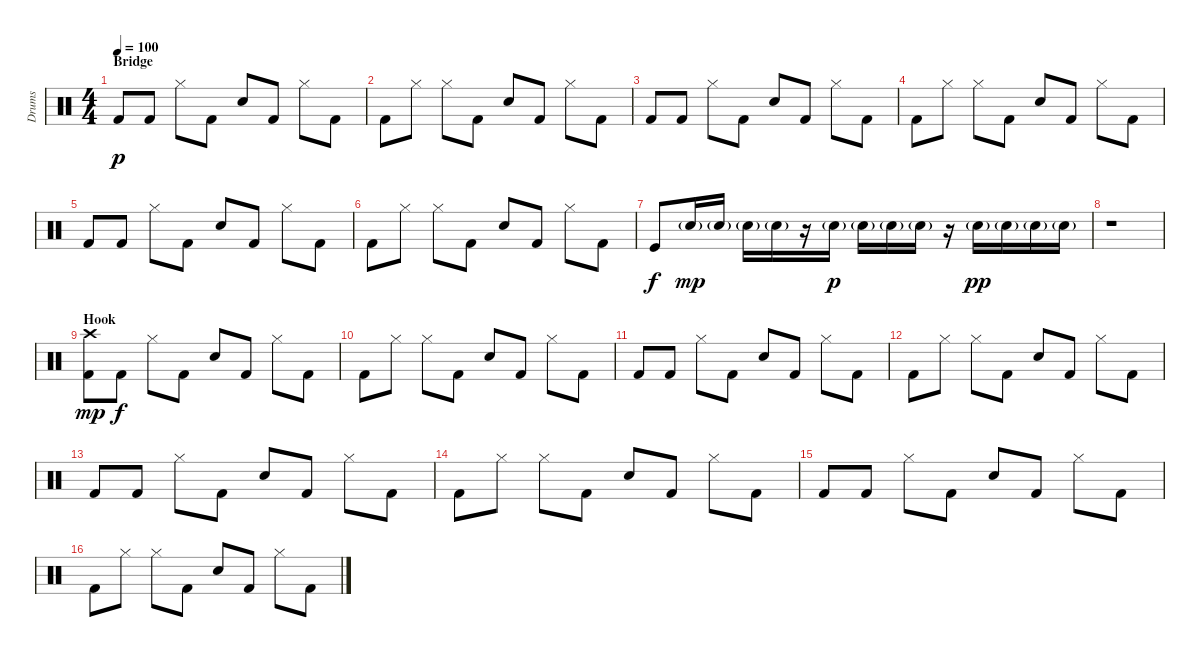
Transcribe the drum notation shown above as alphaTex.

\track ("Drums" "Drums") {instrument percussion}
\staff {score}
\articulation defaults
\ts (4 4)
\section ("" "Bridge")
\tempo 100
\clef neutral
\ks c "Kick (hit) 2".8{dy p} "Kick (hit) 2".8 "Hi-Hat (closed)".8 "Kick (hit) 2".8 "Snare (hit) 2".8 "Kick (hit) 2".8 "Hi-Hat (closed)".8 "Kick (hit) 2".8
|
"Kick (hit) 2".8 "Hi-Hat (closed)".8 "Hi-Hat (closed)".8 "Kick (hit) 2".8 "Snare (hit) 2".8 "Kick (hit) 2".8 "Hi-Hat (closed)".8 "Kick (hit) 2".8 |
"Kick (hit) 2".8 "Kick (hit) 2".8 "Hi-Hat (closed)".8 "Kick (hit) 2".8 "Snare (hit) 2".8 "Kick (hit) 2".8 "Hi-Hat (closed)".8 "Kick (hit) 2".8 |
"Kick (hit) 2".8 "Hi-Hat (closed)".8 "Hi-Hat (closed)".8 "Kick (hit) 2".8 "Snare (hit) 2".8 "Kick (hit) 2".8 "Hi-Hat (closed)".8 "Kick (hit) 2".8 |
"Kick (hit) 2".8 "Kick (hit) 2".8 "Hi-Hat (closed)".8 "Kick (hit) 2".8 "Snare (hit) 2".8 "Kick (hit) 2".8 "Hi-Hat (closed)".8 "Kick (hit) 2".8 |
"Kick (hit) 2".8 "Hi-Hat (closed)".8 "Hi-Hat (closed)".8 "Kick (hit) 2".8 "Snare (hit) 2".8 "Kick (hit) 2".8 "Hi-Hat (closed)".8 "Kick (hit) 2".8 |
"Kick (hit)".8{dy f} "Snare (hit) 2"{g}.16{dy mp} "Snare (hit) 2"{g}.16 "Snare (hit) 2"{g}.16 "Snare (hit) 2"{g}.16 r.16 "Snare (hit) 2"{g}.16{dy p} "Snare (hit) 2"{g}.16 "Snare (hit) 2"{g}.16 "Snare (hit) 2"{g}.16 r.16 "Snare (hit) 2"{g}.16{dy pp} "Snare (hit) 2"{g}.16 "Snare (hit) 2"{g}.16 "Snare (hit) 2"{g}.16 |
r.1 |
\section ("" "Hook")
("Crash high (hit)" "Kick (hit) 2").8{dy mp} "Kick (hit) 2".8{dy f} "Hi-Hat (closed)".8 "Kick (hit) 2".8 "Snare (hit) 2".8 "Kick (hit) 2".8 "Hi-Hat (closed)".8 "Kick (hit) 2".8 |
"Kick (hit) 2".8 "Hi-Hat (closed)".8 "Hi-Hat (closed)".8 "Kick (hit) 2".8 "Snare (hit) 2".8 "Kick (hit) 2".8 "Hi-Hat (closed)".8 "Kick (hit) 2".8 |
"Kick (hit) 2".8 "Kick (hit) 2".8 "Hi-Hat (closed)".8 "Kick (hit) 2".8 "Snare (hit) 2".8 "Kick (hit) 2".8 "Hi-Hat (closed)".8 "Kick (hit) 2".8 |
"Kick (hit) 2".8 "Hi-Hat (closed)".8 "Hi-Hat (closed)".8 "Kick (hit) 2".8 "Snare (hit) 2".8 "Kick (hit) 2".8 "Hi-Hat (closed)".8 "Kick (hit) 2".8 |
"Kick (hit) 2".8 "Kick (hit) 2".8 "Hi-Hat (closed)".8 "Kick (hit) 2".8 "Snare (hit) 2".8 "Kick (hit) 2".8 "Hi-Hat (closed)".8 "Kick (hit) 2".8 |
"Kick (hit) 2".8 "Hi-Hat (closed)".8 "Hi-Hat (closed)".8 "Kick (hit) 2".8 "Snare (hit) 2".8 "Kick (hit) 2".8 "Hi-Hat (closed)".8 "Kick (hit) 2".8 |
"Kick (hit) 2".8 "Kick (hit) 2".8 "Hi-Hat (closed)".8 "Kick (hit) 2".8 "Snare (hit) 2".8 "Kick (hit) 2".8 "Hi-Hat (closed)".8 "Kick (hit) 2".8 |
"Kick (hit) 2".8 "Hi-Hat (closed)".8 "Hi-Hat (closed)".8 "Kick (hit) 2".8 "Snare (hit) 2".8 "Kick (hit) 2".8 "Hi-Hat (closed)".8 "Kick (hit) 2".8
